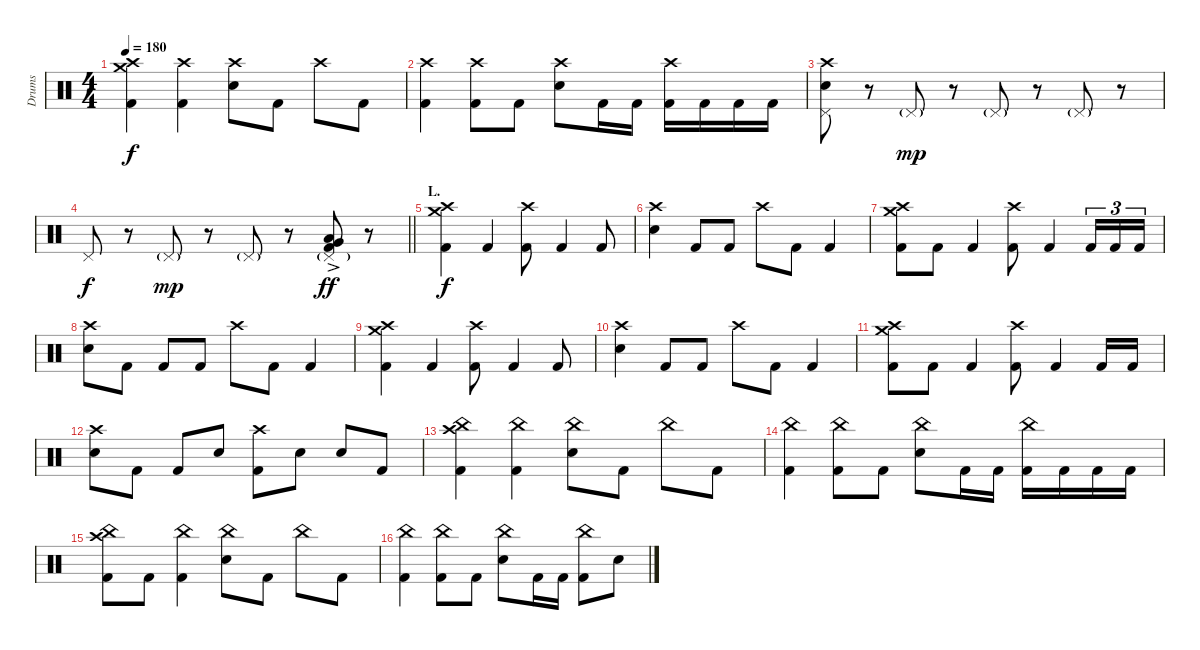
\track ("Drums" "Drums") {instrument percussion}
\staff {score}
\articulation defaults
\ts (4 4)
\tempo 180
\clef neutral
\ks c
("Crash medium (hit)" "Crash high (hit)" "Kick (hit) 2").4{dy f} ("Crash high (hit)" "Kick (hit) 2").4 ("Crash high (hit)" "Electric Snare (hit)").8 "Kick (hit) 2".8 "Crash high (hit)".8 "Kick (hit) 2".8 |
("Crash high (hit)" "Kick (hit) 2").4 ("Crash high (hit)" "Kick (hit) 2").8 "Kick (hit) 2".8 ("Crash high (hit)" "Electric Snare (hit)").8 "Kick (hit) 2".16 "Kick (hit) 2".16 ("Crash high (hit)" "Kick (hit) 2").16 "Kick (hit) 2".16 "Kick (hit) 2".16 "Kick (hit) 2".16 |
("Crash high (hit)" "Pedal Hi-Hat (hit)" "Electric Snare (hit)").8 r.8 "Pedal Hi-Hat (hit)"{g}.8{dy mp} r.8 "Pedal Hi-Hat (hit)"{g}.8 r.8 "Pedal Hi-Hat (hit)"{g}.8 r.8 |
\barLineRight lightlight "Pedal Hi-Hat (hit)".8{dy f}
r.8 "Pedal Hi-Hat (hit)"{g}.8{dy mp} r.8 "Pedal Hi-Hat (hit)"{g}.8 r.8 ("Pedal Hi-Hat (hit)"{g} "Very Low Tom (hit)"{ac} "Low Floor Tom (hit)"{ac} "Kick (hit) 2").8{dy ff} r.8 |
\section ("" "L.")
("Crash medium (hit)" "Crash high (hit)" "Kick (hit) 2").4{dy f} "Kick (hit) 2".4 ("Crash high (hit)" "Kick (hit) 2").8 "Kick (hit) 2".4 "Kick (hit) 2".8 |
("Crash high (hit)" "Electric Snare (hit)").4 "Kick (hit) 2".8 "Kick (hit) 2".8 "Crash high (hit)".8 "Kick (hit) 2".8 "Kick (hit) 2".4 |
("Crash medium (hit)" "Crash high (hit)" "Kick (hit) 2").8 "Kick (hit) 2".8 "Kick (hit) 2".4 ("Crash high (hit)" "Kick (hit) 2").8 "Kick (hit) 2".4 "Kick (hit) 2".16{tu (3 2)} "Kick (hit) 2".16{tu (3 2)} "Kick (hit) 2".16{tu (3 2)} |
("Crash high (hit)" "Electric Snare (hit)").8 "Kick (hit) 2".8 "Kick (hit) 2".8 "Kick (hit) 2".8 "Crash high (hit)".8 "Kick (hit) 2".8 "Kick (hit) 2".4 |
("Crash medium (hit)" "Crash high (hit)" "Kick (hit) 2").4 "Kick (hit) 2".4 ("Crash high (hit)" "Kick (hit) 2").8 "Kick (hit) 2".4 "Kick (hit) 2".8 |
("Crash high (hit)" "Electric Snare (hit)").4 "Kick (hit) 2".8 "Kick (hit) 2".8 "Crash high (hit)".8 "Kick (hit) 2".8 "Kick (hit) 2".4 |
("Crash medium (hit)" "Crash high (hit)" "Kick (hit) 2").8 "Kick (hit) 2".8 "Kick (hit) 2".4 ("Crash high (hit)" "Kick (hit) 2").8 "Kick (hit) 2".4 "Kick (hit) 2".16 "Kick (hit) 2".16 |
("Crash high (hit)" "Electric Snare (hit)").8 "Kick (hit) 2".8 "Kick (hit) 2".8 "Electric Snare (hit)".8 ("Crash high (hit)" "Kick (hit) 2").8 "Electric Snare (hit)".8 "Electric Snare (hit)".8 "Kick (hit) 2".8 |
("China (hit)" "Crash high (hit)" "Kick (hit) 2").4 ("China (hit)" "Kick (hit) 2").4 ("China (hit)" "Electric Snare (hit)").8 "Kick (hit) 2".8 "China (hit)".8 "Kick (hit) 2".8 |
("China (hit)" "Kick (hit) 2").4 ("China (hit)" "Kick (hit) 2").8 "Kick (hit) 2".8 ("China (hit)" "Electric Snare (hit)").8 "Kick (hit) 2".16 "Kick (hit) 2".16 ("China (hit)" "Kick (hit) 2").16 "Kick (hit) 2".16 "Kick (hit) 2".16 "Kick (hit) 2".16 |
("China (hit)" "Crash high (hit)" "Kick (hit) 2").8 "Kick (hit) 2".8 ("China (hit)" "Kick (hit) 2").4 ("China (hit)" "Electric Snare (hit)").8 "Kick (hit) 2".8 "China (hit)".8 "Kick (hit) 2".8 |
("China (hit)" "Kick (hit) 2").4 ("China (hit)" "Kick (hit) 2").8 "Kick (hit) 2".8 ("China (hit)" "Electric Snare (hit)").8 "Kick (hit) 2".16 "Kick (hit) 2".16 ("China (hit)" "Kick (hit) 2").8 "Electric Snare (hit)".8
